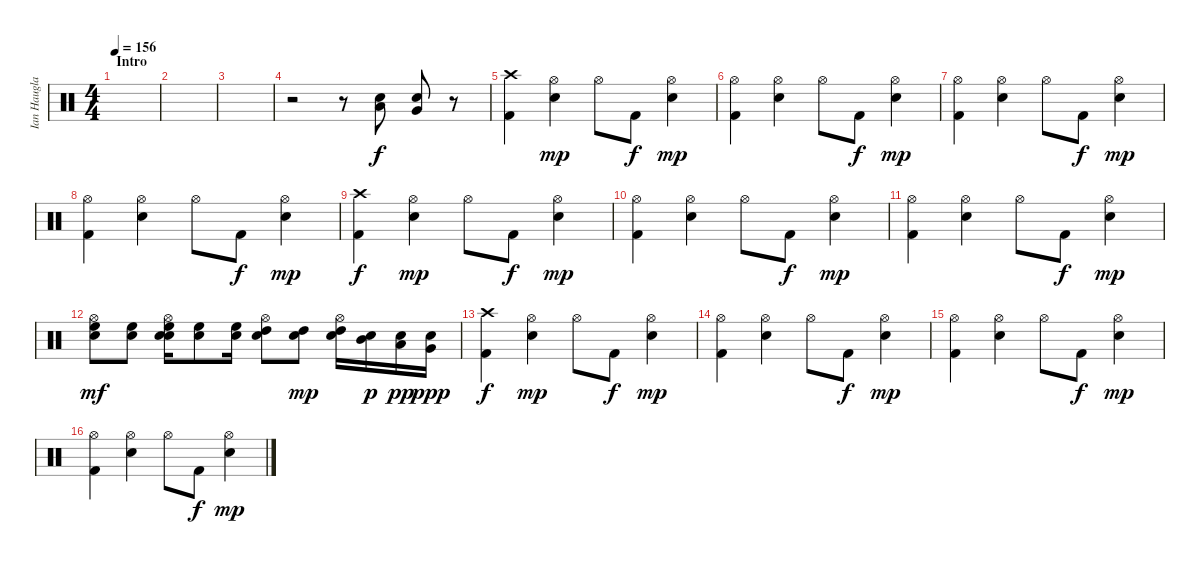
\track ("Ian Haugland" "Ian Haugla") {instrument percussion}
\staff {score}
\articulation defaults
\ts (4 4)
\section ("" "Intro")
\tempo 156
\clef neutral
\ks c
|
|
|
r.2 r.8 ("Snare (hit) 2" "Low Tom (hit)").8 ("Snare (hit) 2" "Very Low Tom (hit)").8 r.8 |
("Kick (hit) 2" "Crash high (hit)").4 ("Hi-Hat (open)" "Snare (hit) 2").4{dy mp} "Hi-Hat (open)".8 "Kick (hit) 2".8{dy f} ("Hi-Hat (open)" "Snare (hit) 2").4{dy mp} |
("Kick (hit) 2" "Hi-Hat (open)").4 ("Hi-Hat (open)" "Snare (hit) 2").4 "Hi-Hat (open)".8 "Kick (hit) 2".8{dy f} ("Hi-Hat (open)" "Snare (hit) 2").4{dy mp} |
("Kick (hit) 2" "Hi-Hat (open)").4 ("Hi-Hat (open)" "Snare (hit) 2").4 "Hi-Hat (open)".8 "Kick (hit) 2".8{dy f} ("Hi-Hat (open)" "Snare (hit) 2").4{dy mp} |
("Kick (hit) 2" "Hi-Hat (open)").4 ("Hi-Hat (open)" "Snare (hit) 2").4 "Hi-Hat (open)".8 "Kick (hit) 2".8{dy f} ("Hi-Hat (open)" "Snare (hit) 2").4{dy mp} |
("Kick (hit) 2" "Crash high (hit)").4{dy f} ("Hi-Hat (open)" "Snare (hit) 2").4{dy mp} "Hi-Hat (open)".8 "Kick (hit) 2".8{dy f} ("Hi-Hat (open)" "Snare (hit) 2").4{dy mp} |
("Kick (hit) 2" "Hi-Hat (open)").4 ("Hi-Hat (open)" "Snare (hit) 2").4 "Hi-Hat (open)".8 "Kick (hit) 2".8{dy f} ("Hi-Hat (open)" "Snare (hit) 2").4{dy mp} |
("Kick (hit) 2" "Hi-Hat (open)").4 ("Hi-Hat (open)" "Snare (hit) 2").4 "Hi-Hat (open)".8 "Kick (hit) 2".8{dy f} ("Hi-Hat (open)" "Snare (hit) 2").4{dy mp} |
("Hi-Hat (open)" "High Floor Tom (hit)" "Hand Clap (hit)").8{dy mf} ("High Floor Tom (hit)" "Hand Clap (hit)").8 ("Hi-Hat (open)" "High Floor Tom (hit)" "Hand Clap (hit)" "Snare (hit) 2").16 ("High Floor Tom (hit)" "Hand Clap (hit)").8 ("High Floor Tom (hit)" "Hand Clap (hit)").16 ("Hi-Hat (open)" "High Tom (hit)" "Hand Clap (hit)").8 ("High Tom (hit)" "Hand Clap (hit)").8{dy mp} ("Hi-Hat (open)" "High Tom (hit)" "Hand Clap (hit)").16 ("Mid Tom (hit)" "Hand Clap (hit)").16{dy p} ("Low Tom (hit)" "Hand Clap (hit)").16{dy pp} ("Very Low Tom (hit)" "Hand Clap (hit)").16{dy ppp} |
("Kick (hit) 2" "Crash high (hit)").4{dy f} ("Hi-Hat (open)" "Snare (hit) 2").4{dy mp} "Hi-Hat (open)".8 "Kick (hit) 2".8{dy f} ("Hi-Hat (open)" "Snare (hit) 2").4{dy mp} |
("Kick (hit) 2" "Hi-Hat (open)").4 ("Hi-Hat (open)" "Snare (hit) 2").4 "Hi-Hat (open)".8 "Kick (hit) 2".8{dy f} ("Hi-Hat (open)" "Snare (hit) 2").4{dy mp} |
("Kick (hit) 2" "Hi-Hat (open)").4 ("Hi-Hat (open)" "Snare (hit) 2").4 "Hi-Hat (open)".8 "Kick (hit) 2".8{dy f} ("Hi-Hat (open)" "Snare (hit) 2").4{dy mp} |
("Kick (hit) 2" "Hi-Hat (open)").4 ("Hi-Hat (open)" "Snare (hit) 2").4 "Hi-Hat (open)".8 "Kick (hit) 2".8{dy f} ("Hi-Hat (open)" "Snare (hit) 2").4{dy mp}
